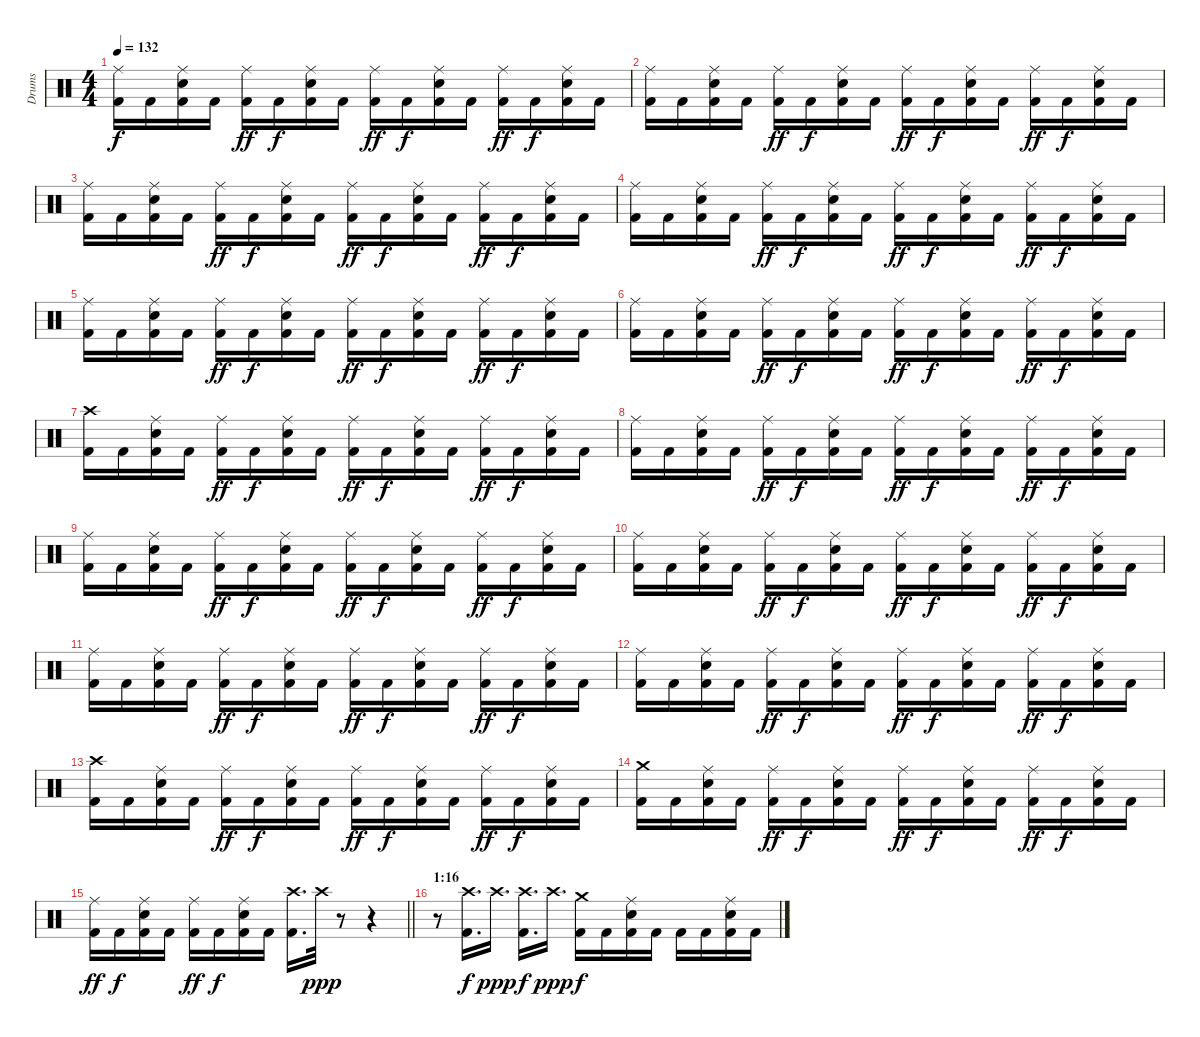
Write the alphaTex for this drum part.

\track ("Drums" "Drums") {instrument percussion}
\staff {score}
\articulation defaults
\ts (4 4)
\tempo 132
\clef neutral
\ks c
("Ride (middle)" "Kick (hit) 2").16{dy f} "Kick (hit) 2".16 ("Ride (middle)" "Snare (hit) 2" "Kick (hit) 2").16 "Kick (hit) 2".16 ("Ride (middle)" "Kick (hit) 2").16{dy ff} "Kick (hit) 2".16{dy f} ("Ride (middle)" "Snare (hit) 2" "Kick (hit) 2").16 "Kick (hit) 2".16 ("Ride (middle)" "Kick (hit) 2").16{dy ff} "Kick (hit) 2".16{dy f} ("Ride (middle)" "Snare (hit) 2" "Kick (hit) 2").16 "Kick (hit) 2".16 ("Ride (middle)" "Kick (hit) 2").16{dy ff} "Kick (hit) 2".16{dy f} ("Ride (middle)" "Snare (hit) 2" "Kick (hit) 2").16 "Kick (hit) 2".16 |
("Ride (middle)" "Kick (hit) 2").16 "Kick (hit) 2".16 ("Ride (middle)" "Snare (hit) 2" "Kick (hit) 2").16 "Kick (hit) 2".16 ("Ride (middle)" "Kick (hit) 2").16{dy ff} "Kick (hit) 2".16{dy f} ("Ride (middle)" "Snare (hit) 2" "Kick (hit) 2").16 "Kick (hit) 2".16 ("Ride (middle)" "Kick (hit) 2").16{dy ff} "Kick (hit) 2".16{dy f} ("Ride (middle)" "Snare (hit) 2" "Kick (hit) 2").16 "Kick (hit) 2".16 ("Ride (middle)" "Kick (hit) 2").16{dy ff} "Kick (hit) 2".16{dy f} ("Ride (middle)" "Snare (hit) 2" "Kick (hit) 2").16 "Kick (hit) 2".16 |
("Ride (middle)" "Kick (hit) 2").16 "Kick (hit) 2".16 ("Ride (middle)" "Snare (hit) 2" "Kick (hit) 2").16 "Kick (hit) 2".16 ("Ride (middle)" "Kick (hit) 2").16{dy ff} "Kick (hit) 2".16{dy f} ("Ride (middle)" "Snare (hit) 2" "Kick (hit) 2").16 "Kick (hit) 2".16 ("Ride (middle)" "Kick (hit) 2").16{dy ff} "Kick (hit) 2".16{dy f} ("Ride (middle)" "Snare (hit) 2" "Kick (hit) 2").16 "Kick (hit) 2".16 ("Ride (middle)" "Kick (hit) 2").16{dy ff} "Kick (hit) 2".16{dy f} ("Ride (middle)" "Snare (hit) 2" "Kick (hit) 2").16 "Kick (hit) 2".16 |
("Ride (middle)" "Kick (hit) 2").16 "Kick (hit) 2".16 ("Ride (middle)" "Snare (hit) 2" "Kick (hit) 2").16 "Kick (hit) 2".16 ("Ride (middle)" "Kick (hit) 2").16{dy ff} "Kick (hit) 2".16{dy f} ("Ride (middle)" "Snare (hit) 2" "Kick (hit) 2").16 "Kick (hit) 2".16 ("Ride (middle)" "Kick (hit) 2").16{dy ff} "Kick (hit) 2".16{dy f} ("Ride (middle)" "Snare (hit) 2" "Kick (hit) 2").16 "Kick (hit) 2".16 ("Ride (middle)" "Kick (hit) 2").16{dy ff} "Kick (hit) 2".16{dy f} ("Ride (middle)" "Snare (hit) 2" "Kick (hit) 2").16 "Kick (hit) 2".16 |
("Ride (middle)" "Kick (hit) 2").16 "Kick (hit) 2".16 ("Ride (middle)" "Snare (hit) 2" "Kick (hit) 2").16 "Kick (hit) 2".16 ("Ride (middle)" "Kick (hit) 2").16{dy ff} "Kick (hit) 2".16{dy f} ("Ride (middle)" "Snare (hit) 2" "Kick (hit) 2").16 "Kick (hit) 2".16 ("Ride (middle)" "Kick (hit) 2").16{dy ff} "Kick (hit) 2".16{dy f} ("Ride (middle)" "Snare (hit) 2" "Kick (hit) 2").16 "Kick (hit) 2".16 ("Ride (middle)" "Kick (hit) 2").16{dy ff} "Kick (hit) 2".16{dy f} ("Ride (middle)" "Snare (hit) 2" "Kick (hit) 2").16 "Kick (hit) 2".16 |
("Ride (middle)" "Kick (hit) 2").16 "Kick (hit) 2".16 ("Ride (middle)" "Snare (hit) 2" "Kick (hit) 2").16 "Kick (hit) 2".16 ("Ride (middle)" "Kick (hit) 2").16{dy ff} "Kick (hit) 2".16{dy f} ("Ride (middle)" "Snare (hit) 2" "Kick (hit) 2").16 "Kick (hit) 2".16 ("Ride (middle)" "Kick (hit) 2").16{dy ff} "Kick (hit) 2".16{dy f} ("Ride (middle)" "Snare (hit) 2" "Kick (hit) 2").16 "Kick (hit) 2".16 ("Ride (middle)" "Kick (hit) 2").16{dy ff} "Kick (hit) 2".16{dy f} ("Ride (middle)" "Snare (hit) 2" "Kick (hit) 2").16 "Kick (hit) 2".16 |
("Crash high (hit)" "Kick (hit) 2").16 "Kick (hit) 2".16 ("Ride (middle)" "Snare (hit) 2" "Kick (hit) 2").16 "Kick (hit) 2".16 ("Ride (middle)" "Kick (hit) 2").16{dy ff} "Kick (hit) 2".16{dy f} ("Ride (middle)" "Snare (hit) 2" "Kick (hit) 2").16 "Kick (hit) 2".16 ("Ride (middle)" "Kick (hit) 2").16{dy ff} "Kick (hit) 2".16{dy f} ("Ride (middle)" "Snare (hit) 2" "Kick (hit) 2").16 "Kick (hit) 2".16 ("Ride (middle)" "Kick (hit) 2").16{dy ff} "Kick (hit) 2".16{dy f} ("Ride (middle)" "Snare (hit) 2" "Kick (hit) 2").16 "Kick (hit) 2".16 |
("Ride (middle)" "Kick (hit) 2").16 "Kick (hit) 2".16 ("Ride (middle)" "Snare (hit) 2" "Kick (hit) 2").16 "Kick (hit) 2".16 ("Ride (middle)" "Kick (hit) 2").16{dy ff} "Kick (hit) 2".16{dy f} ("Ride (middle)" "Snare (hit) 2" "Kick (hit) 2").16 "Kick (hit) 2".16 ("Ride (middle)" "Kick (hit) 2").16{dy ff} "Kick (hit) 2".16{dy f} ("Ride (middle)" "Snare (hit) 2" "Kick (hit) 2").16 "Kick (hit) 2".16 ("Ride (middle)" "Kick (hit) 2").16{dy ff} "Kick (hit) 2".16{dy f} ("Ride (middle)" "Snare (hit) 2" "Kick (hit) 2").16 "Kick (hit) 2".16 |
("Ride (middle)" "Kick (hit) 2").16 "Kick (hit) 2".16 ("Ride (middle)" "Snare (hit) 2" "Kick (hit) 2").16 "Kick (hit) 2".16 ("Ride (middle)" "Kick (hit) 2").16{dy ff} "Kick (hit) 2".16{dy f} ("Ride (middle)" "Snare (hit) 2" "Kick (hit) 2").16 "Kick (hit) 2".16 ("Ride (middle)" "Kick (hit) 2").16{dy ff} "Kick (hit) 2".16{dy f} ("Ride (middle)" "Snare (hit) 2" "Kick (hit) 2").16 "Kick (hit) 2".16 ("Ride (middle)" "Kick (hit) 2").16{dy ff} "Kick (hit) 2".16{dy f} ("Ride (middle)" "Snare (hit) 2" "Kick (hit) 2").16 "Kick (hit) 2".16 |
("Ride (middle)" "Kick (hit) 2").16 "Kick (hit) 2".16 ("Ride (middle)" "Snare (hit) 2" "Kick (hit) 2").16 "Kick (hit) 2".16 ("Ride (middle)" "Kick (hit) 2").16{dy ff} "Kick (hit) 2".16{dy f} ("Ride (middle)" "Snare (hit) 2" "Kick (hit) 2").16 "Kick (hit) 2".16 ("Ride (middle)" "Kick (hit) 2").16{dy ff} "Kick (hit) 2".16{dy f} ("Ride (middle)" "Snare (hit) 2" "Kick (hit) 2").16 "Kick (hit) 2".16 ("Ride (middle)" "Kick (hit) 2").16{dy ff} "Kick (hit) 2".16{dy f} ("Ride (middle)" "Snare (hit) 2" "Kick (hit) 2").16 "Kick (hit) 2".16 |
("Ride (middle)" "Kick (hit) 2").16 "Kick (hit) 2".16 ("Ride (middle)" "Snare (hit) 2" "Kick (hit) 2").16 "Kick (hit) 2".16 ("Ride (middle)" "Kick (hit) 2").16{dy ff} "Kick (hit) 2".16{dy f} ("Ride (middle)" "Snare (hit) 2" "Kick (hit) 2").16 "Kick (hit) 2".16 ("Ride (middle)" "Kick (hit) 2").16{dy ff} "Kick (hit) 2".16{dy f} ("Ride (middle)" "Snare (hit) 2" "Kick (hit) 2").16 "Kick (hit) 2".16 ("Ride (middle)" "Kick (hit) 2").16{dy ff} "Kick (hit) 2".16{dy f} ("Ride (middle)" "Snare (hit) 2" "Kick (hit) 2").16 "Kick (hit) 2".16 |
("Ride (middle)" "Kick (hit) 2").16 "Kick (hit) 2".16 ("Ride (middle)" "Snare (hit) 2" "Kick (hit) 2").16 "Kick (hit) 2".16 ("Ride (middle)" "Kick (hit) 2").16{dy ff} "Kick (hit) 2".16{dy f} ("Ride (middle)" "Snare (hit) 2" "Kick (hit) 2").16 "Kick (hit) 2".16 ("Ride (middle)" "Kick (hit) 2").16{dy ff} "Kick (hit) 2".16{dy f} ("Ride (middle)" "Snare (hit) 2" "Kick (hit) 2").16 "Kick (hit) 2".16 ("Ride (middle)" "Kick (hit) 2").16{dy ff} "Kick (hit) 2".16{dy f} ("Ride (middle)" "Snare (hit) 2" "Kick (hit) 2").16 "Kick (hit) 2".16 |
("Crash high (hit)" "Kick (hit) 2").16 "Kick (hit) 2".16 ("Ride (middle)" "Snare (hit) 2" "Kick (hit) 2").16 "Kick (hit) 2".16 ("Ride (middle)" "Kick (hit) 2").16{dy ff} "Kick (hit) 2".16{dy f} ("Ride (middle)" "Snare (hit) 2" "Kick (hit) 2").16 "Kick (hit) 2".16 ("Ride (middle)" "Kick (hit) 2").16{dy ff} "Kick (hit) 2".16{dy f} ("Ride (middle)" "Snare (hit) 2" "Kick (hit) 2").16 "Kick (hit) 2".16 ("Ride (middle)" "Kick (hit) 2").16{dy ff} "Kick (hit) 2".16{dy f} ("Ride (middle)" "Snare (hit) 2" "Kick (hit) 2").16 "Kick (hit) 2".16 |
("Crash medium (hit)" "Kick (hit) 2").16 "Kick (hit) 2".16 ("Ride (middle)" "Snare (hit) 2" "Kick (hit) 2").16 "Kick (hit) 2".16 ("Ride (middle)" "Kick (hit) 2").16{dy ff} "Kick (hit) 2".16{dy f} ("Ride (middle)" "Snare (hit) 2" "Kick (hit) 2").16 "Kick (hit) 2".16 ("Ride (middle)" "Kick (hit) 2").16{dy ff} "Kick (hit) 2".16{dy f} ("Ride (middle)" "Snare (hit) 2" "Kick (hit) 2").16 "Kick (hit) 2".16 ("Ride (middle)" "Kick (hit) 2").16{dy ff} "Kick (hit) 2".16{dy f} ("Ride (middle)" "Snare (hit) 2" "Kick (hit) 2").16 "Kick (hit) 2".16 |
\barLineRight lightlight
("Ride (middle)" "Kick (hit) 2").16{dy ff} "Kick (hit) 2".16{dy f} ("Ride (middle)" "Snare (hit) 2" "Kick (hit) 2").16 "Kick (hit) 2".16 ("Ride (middle)" "Kick (hit) 2").16{dy ff} "Kick (hit) 2".16{dy f} ("Ride (middle)" "Snare (hit) 2" "Kick (hit) 2").16 "Kick (hit) 2".16 ("Crash high (hit)" "Kick (hit) 2").16{d} "Crash high (hit)".32{dy ppp} r.8 r.4 |
\section ("" "1:16")
r.8 ("Crash high (hit)" "Kick (hit) 2").16{d dy f} "Crash high (hit)".16{d dy ppp} ("Crash high (hit)" "Kick (hit) 2").16{d dy f} "Crash high (hit)".16{d dy ppp} ("Crash medium (hit)" "Kick (hit) 2").16{dy f} "Kick (hit) 2".16 ("Ride (middle)" "Snare (hit) 2" "Kick (hit) 2").16 "Kick (hit) 2".16 "Kick (hit) 2".16 "Kick (hit) 2".16 ("Ride (middle)" "Snare (hit) 2" "Kick (hit) 2").16 "Kick (hit) 2".16
